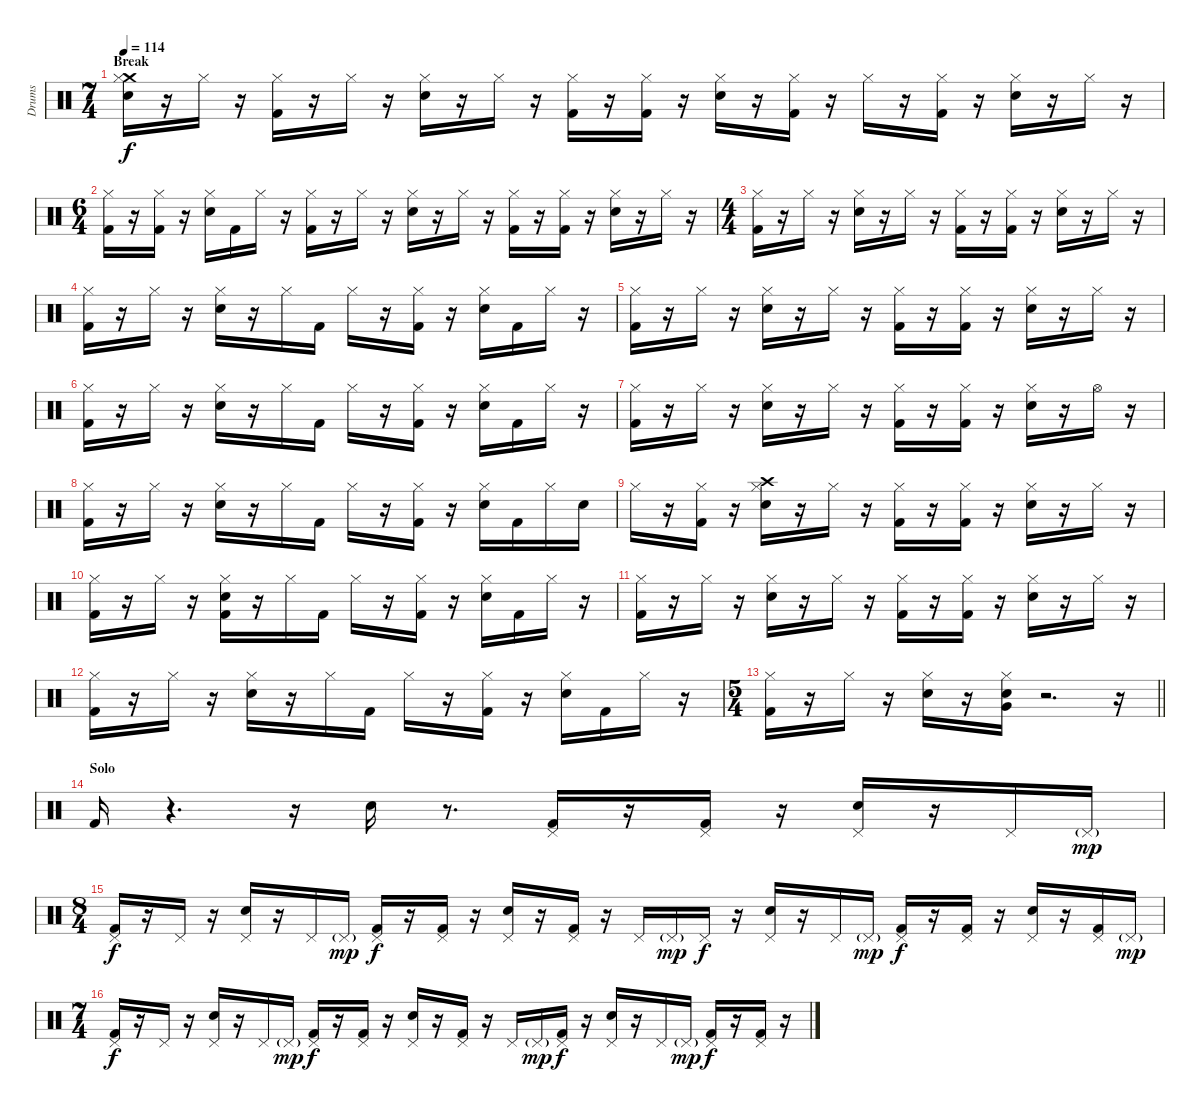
\track ("Drums" "Drums") {instrument percussion}
\staff {score}
\articulation defaults
\ts (7 4)
\section ("" "Break")
\tempo 114
\clef neutral
\ks c
("Crash medium (hit)" "Hi-Hat (closed)" "Snare (hit) 2").16{dy f} r.16 "Hi-Hat (closed)".16 r.16 ("Hi-Hat (closed)" "Kick (hit) 2").16 r.16 "Hi-Hat (closed)".16 r.16 ("Hi-Hat (closed)" "Snare (hit) 2").16 r.16 "Hi-Hat (closed)".16 r.16 ("Hi-Hat (closed)" "Kick (hit) 2").16 r.16 ("Hi-Hat (closed)" "Kick (hit) 2").16 r.16 ("Hi-Hat (closed)" "Snare (hit) 2").16 r.16 ("Hi-Hat (closed)" "Kick (hit) 2").16 r.16 "Hi-Hat (closed)".16 r.16 ("Hi-Hat (closed)" "Kick (hit) 2").16 r.16 ("Hi-Hat (closed)" "Snare (hit) 2").16 r.16 "Hi-Hat (closed)".16 r.16 |
\ts (6 4)
("Hi-Hat (closed)" "Kick (hit) 2").16 r.16 ("Hi-Hat (closed)" "Kick (hit) 2").16 r.16 ("Hi-Hat (closed)" "Snare (hit) 2").16 "Kick (hit) 2".16 "Hi-Hat (closed)".16 r.16 ("Hi-Hat (closed)" "Kick (hit) 2").16 r.16 "Hi-Hat (closed)".16 r.16 ("Hi-Hat (closed)" "Snare (hit) 2").16 r.16 "Hi-Hat (closed)".16 r.16 ("Hi-Hat (closed)" "Kick (hit) 2").16 r.16 ("Hi-Hat (closed)" "Kick (hit) 2").16 r.16 ("Hi-Hat (closed)" "Snare (hit) 2").16 r.16 "Hi-Hat (closed)".16 r.16 |
\ts (4 4)
("Hi-Hat (closed)" "Kick (hit) 2").16 r.16 "Hi-Hat (closed)".16 r.16 ("Hi-Hat (closed)" "Snare (hit) 2").16 r.16 "Hi-Hat (closed)".16 r.16 ("Hi-Hat (closed)" "Kick (hit) 2").16 r.16 ("Hi-Hat (closed)" "Kick (hit) 2").16 r.16 ("Hi-Hat (closed)" "Snare (hit) 2").16 r.16 "Hi-Hat (closed)".16 r.16 |
("Hi-Hat (closed)" "Kick (hit) 2").16 r.16 "Hi-Hat (closed)".16 r.16 ("Hi-Hat (closed)" "Snare (hit) 2").16 r.16 "Hi-Hat (closed)".16 "Kick (hit) 2".16 "Hi-Hat (closed)".16 r.16 ("Hi-Hat (closed)" "Kick (hit) 2").16 r.16 ("Hi-Hat (closed)" "Snare (hit) 2").16 "Kick (hit) 2".16 "Hi-Hat (closed)".16 r.16 |
("Hi-Hat (closed)" "Kick (hit) 2").16 r.16 "Hi-Hat (closed)".16 r.16 ("Hi-Hat (closed)" "Snare (hit) 2").16 r.16 "Hi-Hat (closed)".16 r.16 ("Hi-Hat (closed)" "Kick (hit) 2").16 r.16 ("Hi-Hat (closed)" "Kick (hit) 2").16 r.16 ("Hi-Hat (closed)" "Snare (hit) 2").16 r.16 "Hi-Hat (closed)".16 r.16 |
("Hi-Hat (closed)" "Kick (hit) 2").16 r.16 "Hi-Hat (closed)".16 r.16 ("Hi-Hat (closed)" "Snare (hit) 2").16 r.16 "Hi-Hat (closed)".16 "Kick (hit) 2".16 "Hi-Hat (closed)".16 r.16 ("Hi-Hat (closed)" "Kick (hit) 2").16 r.16 ("Hi-Hat (closed)" "Snare (hit) 2").16 "Kick (hit) 2".16 "Hi-Hat (closed)".16 r.16 |
("Hi-Hat (closed)" "Kick (hit) 2").16 r.16 "Hi-Hat (closed)".16 r.16 ("Hi-Hat (closed)" "Snare (hit) 2").16 r.16 "Hi-Hat (closed)".16 r.16 ("Hi-Hat (closed)" "Kick (hit) 2").16 r.16 ("Hi-Hat (closed)" "Kick (hit) 2").16 r.16 ("Hi-Hat (closed)" "Snare (hit) 2").16 r.16 "Hi-Hat (open)".16 r.16 |
("Hi-Hat (closed)" "Kick (hit) 2").16 r.16 "Hi-Hat (closed)".16 r.16 ("Hi-Hat (closed)" "Snare (hit) 2").16 r.16 "Hi-Hat (closed)".16 "Kick (hit) 2".16 "Hi-Hat (closed)".16 r.16 ("Hi-Hat (closed)" "Kick (hit) 2").16 r.16 ("Hi-Hat (closed)" "Snare (hit) 2").16 "Kick (hit) 2".16 "Hi-Hat (closed)".16 "Snare (hit) 2".16 |
"Hi-Hat (closed)".16 r.16 ("Hi-Hat (closed)" "Kick (hit) 2").16 r.16 ("Crash high (hit)" "Hi-Hat (closed)" "Snare (hit) 2").16 r.16 "Hi-Hat (closed)".16 r.16 ("Hi-Hat (closed)" "Kick (hit) 2").16 r.16 ("Hi-Hat (closed)" "Kick (hit) 2").16 r.16 ("Hi-Hat (closed)" "Snare (hit) 2").16 r.16 "Hi-Hat (closed)".16 r.16 |
("Hi-Hat (closed)" "Kick (hit) 2").16 r.16 "Hi-Hat (closed)".16 r.16 ("Hi-Hat (closed)" "Snare (hit) 2" "Kick (hit) 2").16 r.16 "Hi-Hat (closed)".16 "Kick (hit) 2".16 "Hi-Hat (closed)".16 r.16 ("Hi-Hat (closed)" "Kick (hit) 2").16 r.16 ("Hi-Hat (closed)" "Snare (hit) 2").16 "Kick (hit) 2".16 "Hi-Hat (closed)".16 r.16 |
("Hi-Hat (closed)" "Kick (hit) 2").16 r.16 "Hi-Hat (closed)".16 r.16 ("Hi-Hat (closed)" "Snare (hit) 2").16 r.16 "Hi-Hat (closed)".16 r.16 ("Hi-Hat (closed)" "Kick (hit) 2").16 r.16 ("Hi-Hat (closed)" "Kick (hit) 2").16 r.16 ("Hi-Hat (closed)" "Snare (hit) 2").16 r.16 "Hi-Hat (closed)".16 r.16 |
("Hi-Hat (closed)" "Kick (hit) 2").16 r.16 "Hi-Hat (closed)".16 r.16 ("Hi-Hat (closed)" "Snare (hit) 2").16 r.16 "Hi-Hat (closed)".16 "Kick (hit) 2".16 "Hi-Hat (closed)".16 r.16 ("Hi-Hat (closed)" "Kick (hit) 2").16 r.16 ("Hi-Hat (closed)" "Snare (hit) 2").16 "Kick (hit) 2".16 "Hi-Hat (closed)".16 r.16 |
\ts (5 4)
\barLineRight lightlight
("Hi-Hat (closed)" "Kick (hit) 2").16 r.16 "Hi-Hat (closed)".16 r.16 ("Hi-Hat (closed)" "Snare (hit) 2").16 r.16 ("Hi-Hat (closed)" "Very Low Tom (hit)" "Snare (hit) 2").16 r.2{d} r.16 |
\section ("" "Solo")
"Kick (hit) 2".16 r.4{d} r.16 "Snare (hit) 2".16 r.8{d} ("Pedal Hi-Hat (hit)" "Kick (hit) 2").16 r.16 ("Pedal Hi-Hat (hit)" "Kick (hit) 2").16 r.16 ("Pedal Hi-Hat (hit)" "Snare (hit) 2").16 r.16 "Pedal Hi-Hat (hit)".16 "Pedal Hi-Hat (hit)"{g}.16{dy mp} |
\ts (8 4)
("Pedal Hi-Hat (hit)" "Kick (hit) 2").16{dy f} r.16 "Pedal Hi-Hat (hit)".16 r.16 ("Pedal Hi-Hat (hit)" "Snare (hit) 2").16 r.16 "Pedal Hi-Hat (hit)".16 "Pedal Hi-Hat (hit)"{g}.16{dy mp} ("Pedal Hi-Hat (hit)" "Kick (hit) 2").16{dy f} r.16 ("Pedal Hi-Hat (hit)" "Kick (hit) 2").16 r.16 ("Pedal Hi-Hat (hit)" "Snare (hit) 2").16 r.16 ("Pedal Hi-Hat (hit)" "Kick (hit) 2").16 r.16 "Pedal Hi-Hat (hit)".16 "Pedal Hi-Hat (hit)"{g}.16{dy mp} "Pedal Hi-Hat (hit)".16{dy f} r.16 ("Pedal Hi-Hat (hit)" "Snare (hit) 2").16 r.16 "Pedal Hi-Hat (hit)".16 "Pedal Hi-Hat (hit)"{g}.16{dy mp} ("Pedal Hi-Hat (hit)" "Kick (hit) 2").16{dy f} r.16 ("Pedal Hi-Hat (hit)" "Kick (hit) 2").16 r.16 ("Pedal Hi-Hat (hit)" "Snare (hit) 2").16 r.16 ("Pedal Hi-Hat (hit)" "Kick (hit) 2").16 "Pedal Hi-Hat (hit)"{g}.16{dy mp} |
\ts (7 4)
("Pedal Hi-Hat (hit)" "Kick (hit) 2").16{dy f} r.16 "Pedal Hi-Hat (hit)".16 r.16 ("Pedal Hi-Hat (hit)" "Snare (hit) 2").16 r.16 "Pedal Hi-Hat (hit)".16 "Pedal Hi-Hat (hit)"{g}.16{dy mp} ("Pedal Hi-Hat (hit)" "Kick (hit) 2").16{dy f} r.16 ("Pedal Hi-Hat (hit)" "Kick (hit) 2").16 r.16 ("Pedal Hi-Hat (hit)" "Snare (hit) 2").16 r.16 ("Pedal Hi-Hat (hit)" "Kick (hit) 2").16 r.16 "Pedal Hi-Hat (hit)".16 "Pedal Hi-Hat (hit)"{g}.16{dy mp} ("Pedal Hi-Hat (hit)" "Kick (hit) 2").16{dy f} r.16 ("Pedal Hi-Hat (hit)" "Snare (hit) 2").16 r.16 "Pedal Hi-Hat (hit)".16 "Pedal Hi-Hat (hit)"{g}.16{dy mp} ("Pedal Hi-Hat (hit)" "Kick (hit) 2").16{dy f} r.16 ("Pedal Hi-Hat (hit)" "Kick (hit) 2").16 r.16
